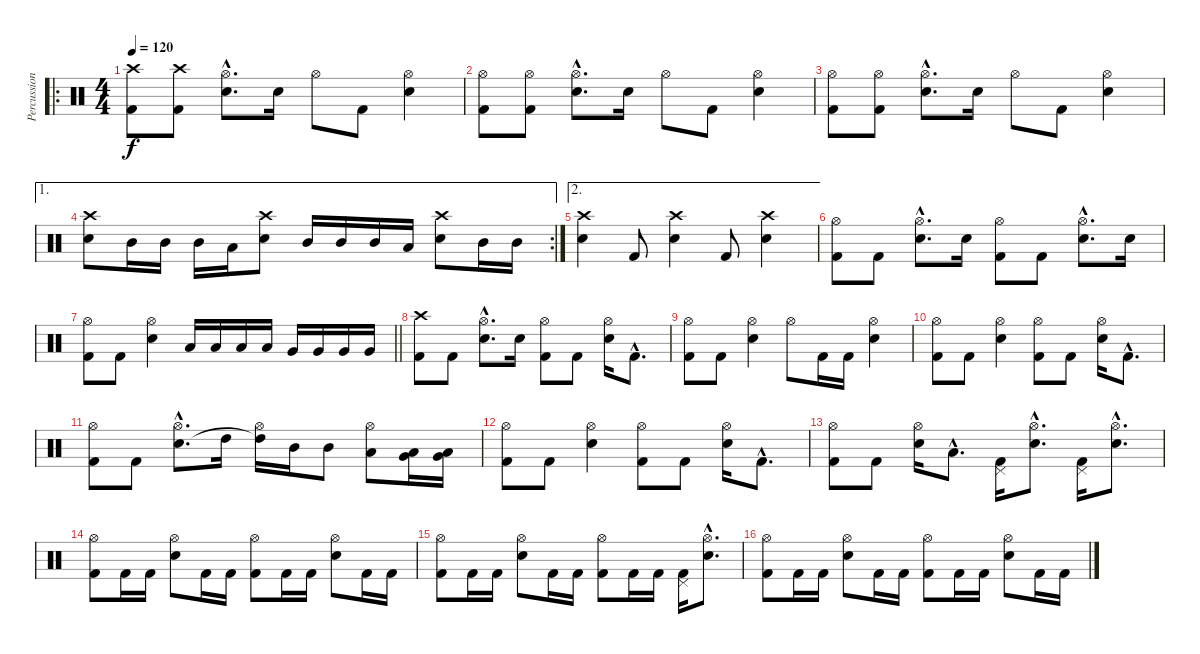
\track ("Percussion" "Percussion") {instrument percussion}
\staff {score}
\articulation defaults
\ro
\ts (4 4)
\tempo 120
\clef neutral
\ks c
("Crash high (hit)" "Kick (hit) 2").8{dy f} ("Crash high (hit)" "Kick (hit) 2").8 ("Hi-Hat (open)"{hac} "Snare (hit) 2"{hac}).8{d} "Snare (hit) 2".16 "Hi-Hat (open)".8 "Kick (hit) 2".8 ("Hi-Hat (open)" "Snare (hit) 2").4 |
("Hi-Hat (open)" "Kick (hit) 2").8 ("Hi-Hat (open)" "Kick (hit) 2").8 ("Hi-Hat (open)"{hac} "Snare (hit) 2"{hac}).8{d} "Snare (hit) 2".16 "Hi-Hat (open)".8 "Kick (hit) 2".8 ("Hi-Hat (open)" "Snare (hit) 2").4 |
("Hi-Hat (open)" "Kick (hit) 2").8 ("Hi-Hat (open)" "Kick (hit) 2").8 ("Hi-Hat (open)"{hac} "Snare (hit) 2"{hac}).8{d} "Snare (hit) 2".16 "Hi-Hat (open)".8 "Kick (hit) 2".8 ("Hi-Hat (open)" "Snare (hit) 2").4 |
\ae 1
\rc 2
("Crash high (hit)" "Snare (hit) 2").8 "Mid Tom (hit)".16 "Mid Tom (hit)".16 "Mid Tom (hit)".16 "Low Floor Tom (hit)".16 ("Crash high (hit)" "Snare (hit) 2").8 "Mid Tom (hit)".16 "Mid Tom (hit)".16 "Mid Tom (hit)".16 "Low Floor Tom (hit)".16 ("Crash high (hit)" "Snare (hit) 2").8 "Mid Tom (hit)".16 "Mid Tom (hit)".16 |
\ae 2
("Crash high (hit)" "Snare (hit) 2").4 "Kick (hit) 2".8 ("Crash high (hit)" "Snare (hit) 2").4 "Kick (hit) 2".8 ("Crash high (hit)" "Snare (hit) 2").4 |
("Hi-Hat (open)" "Kick (hit) 2").8 "Kick (hit) 2".8 ("Hi-Hat (open)"{hac} "Snare (hit) 2"{hac}).8{d} "Snare (hit) 2".16 ("Hi-Hat (open)" "Kick (hit) 2").8 "Kick (hit) 2".8 ("Hi-Hat (open)"{hac} "Snare (hit) 2"{hac}).8{d} "Snare (hit) 2".16 |
\barLineRight lightlight
("Hi-Hat (open)" "Kick (hit) 2").8 "Kick (hit) 2".8 ("Hi-Hat (open)" "Snare (hit) 2").4 "Low Tom (hit)".16 "Low Tom (hit)".16 "Low Tom (hit)".16 "Low Tom (hit)".16 "Very Low Tom (hit)".16 "Very Low Tom (hit)".16 "Very Low Tom (hit)".16 "Very Low Tom (hit)".16 |
("Crash high (hit)" "Kick (hit) 2").8 "Kick (hit) 2".8 ("Hi-Hat (open)"{hac} "Snare (hit) 2"{hac}).8{d} "Snare (hit) 2".16 ("Hi-Hat (open)" "Kick (hit) 2").8 "Kick (hit) 2".8 ("Hi-Hat (open)" "Snare (hit) 2").16 "Kick (hit) 2"{hac}.8{d} |
("Hi-Hat (open)" "Kick (hit) 2").8 "Kick (hit) 2".8 ("Hi-Hat (open)" "Snare (hit) 2").4 "Hi-Hat (open)".8 "Kick (hit) 2".16 "Kick (hit) 2".16 ("Hi-Hat (open)" "Snare (hit) 2").4 |
("Hi-Hat (open)" "Kick (hit) 2").8 "Kick (hit) 2".8 ("Hi-Hat (open)" "Snare (hit) 2").4 ("Hi-Hat (open)" "Kick (hit) 2").8 "Kick (hit) 2".8 ("Hi-Hat (open)" "Snare (hit) 2").16 "Kick (hit) 2"{hac}.8{d} |
("Hi-Hat (open)" "Kick (hit) 2").8 "Kick (hit) 2".8 ("Hi-Hat (open)"{hac} "Snare (hit) 2"{hac}).8{d} "High Tom (hit)".16 ("Hi-Hat (open)" "High Tom (hit)"{t}).16 "Mid Tom (hit)".16 "Mid Tom (hit)".8 ("Hi-Hat (open)" "Low Tom (hit)").8 ("Low Floor Tom (hit)" "Very Low Tom (hit)").16 ("Low Floor Tom (hit)" "Very Low Tom (hit)").16 |
("Hi-Hat (open)" "Kick (hit) 2").8 "Kick (hit) 2".8 ("Hi-Hat (open)" "Snare (hit) 2").4 ("Hi-Hat (open)" "Kick (hit) 2").8 "Kick (hit) 2".8 ("Hi-Hat (open)" "Snare (hit) 2").16 "Kick (hit) 2"{hac}.8{d} |
("Hi-Hat (open)" "Kick (hit) 2").8 "Kick (hit) 2".8 ("Hi-Hat (open)" "Snare (hit) 2").16 "Low Floor Tom (hit)"{hac}.8{d} ("Pedal Hi-Hat (hit)" "Kick (hit) 2").16 ("Hi-Hat (open)"{hac} "Snare (hit) 2"{hac}).8{d} ("Pedal Hi-Hat (hit)" "Kick (hit) 2").16 ("Hi-Hat (open)"{hac} "Snare (hit) 2"{hac}).8{d} |
("Hi-Hat (open)" "Kick (hit) 2").8 "Kick (hit) 2".16 "Kick (hit) 2".16 ("Hi-Hat (open)" "Snare (hit) 2").8 "Kick (hit) 2".16 "Kick (hit) 2".16 ("Hi-Hat (open)" "Kick (hit) 2").8 "Kick (hit) 2".16 "Kick (hit) 2".16 ("Hi-Hat (open)" "Snare (hit) 2").8 "Kick (hit) 2".16 "Kick (hit) 2".16 |
("Hi-Hat (open)" "Kick (hit) 2").8 "Kick (hit) 2".16 "Kick (hit) 2".16 ("Hi-Hat (open)" "Snare (hit) 2").8 "Kick (hit) 2".16 "Kick (hit) 2".16 ("Hi-Hat (open)" "Kick (hit) 2").8 "Kick (hit) 2".16 "Kick (hit) 2".16 ("Pedal Hi-Hat (hit)" "Kick (hit) 2").16 ("Hi-Hat (open)"{hac} "Snare (hit) 2"{hac}).8{d} |
("Hi-Hat (open)" "Kick (hit) 2").8 "Kick (hit) 2".16 "Kick (hit) 2".16 ("Hi-Hat (open)" "Snare (hit) 2").8 "Kick (hit) 2".16 "Kick (hit) 2".16 ("Hi-Hat (open)" "Kick (hit) 2").8 "Kick (hit) 2".16 "Kick (hit) 2".16 ("Hi-Hat (open)" "Snare (hit) 2").8 "Kick (hit) 2".16 "Kick (hit) 2".16
